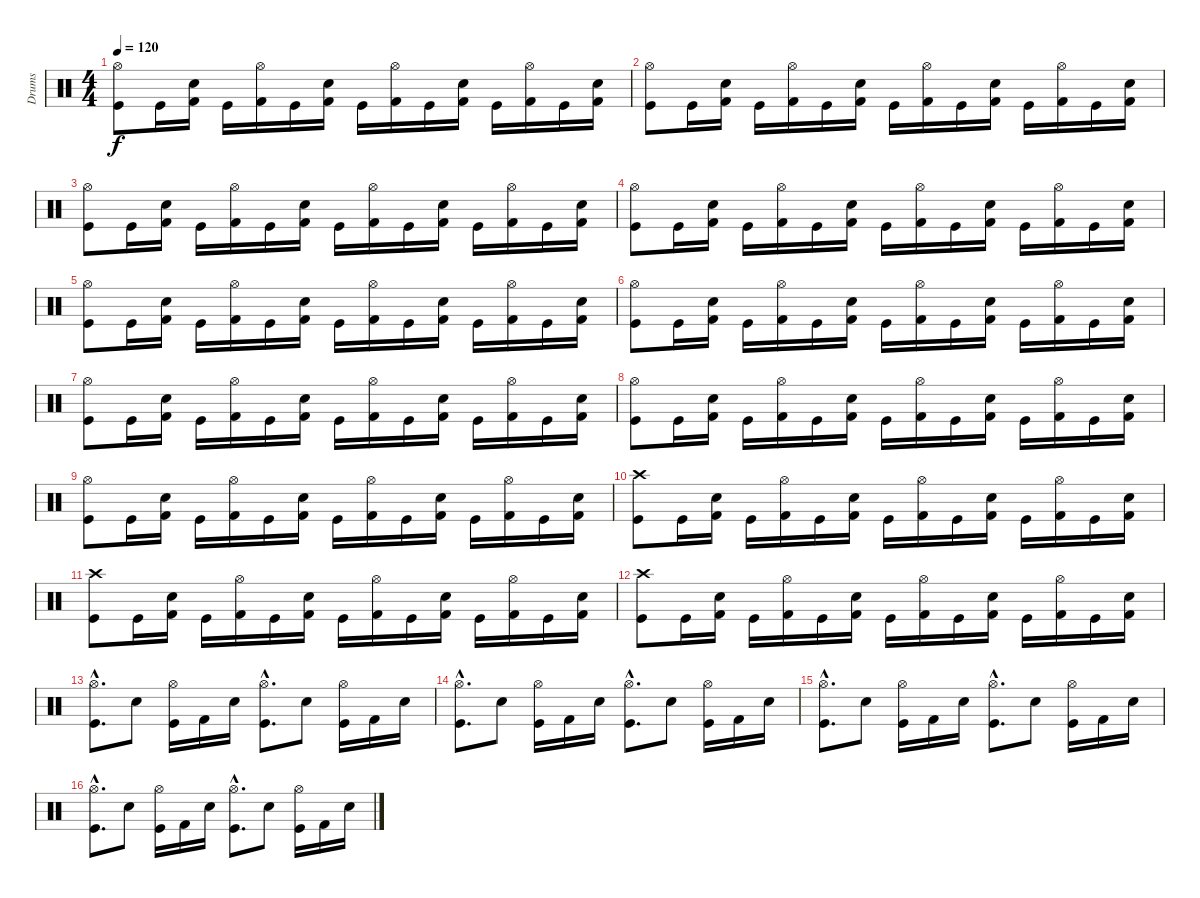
\track ("Drums" "Drums") {instrument percussion}
\staff {score}
\articulation defaults
\ts (4 4)
\tempo 120
\clef neutral
\ks c
("Hi-Hat (open)" "Kick (hit)").8{dy f} "Kick (hit)".16 ("Snare (hit) 2" "Kick (hit) 2").16 "Kick (hit)".16 ("Hi-Hat (open)" "Kick (hit) 2").16 "Kick (hit)".16 ("Snare (hit) 2" "Kick (hit) 2").16 "Kick (hit)".16 ("Hi-Hat (open)" "Kick (hit) 2").16 "Kick (hit)".16 ("Snare (hit) 2" "Kick (hit) 2").16 "Kick (hit)".16 ("Hi-Hat (open)" "Kick (hit) 2").16 "Kick (hit)".16 ("Snare (hit) 2" "Kick (hit) 2").16 |
("Hi-Hat (open)" "Kick (hit)").8 "Kick (hit)".16 ("Snare (hit) 2" "Kick (hit) 2").16 "Kick (hit)".16 ("Hi-Hat (open)" "Kick (hit) 2").16 "Kick (hit)".16 ("Snare (hit) 2" "Kick (hit) 2").16 "Kick (hit)".16 ("Hi-Hat (open)" "Kick (hit) 2").16 "Kick (hit)".16 ("Snare (hit) 2" "Kick (hit) 2").16 "Kick (hit)".16 ("Hi-Hat (open)" "Kick (hit) 2").16 "Kick (hit)".16 ("Snare (hit) 2" "Kick (hit) 2").16 |
("Hi-Hat (open)" "Kick (hit)").8 "Kick (hit)".16 ("Snare (hit) 2" "Kick (hit) 2").16 "Kick (hit)".16 ("Hi-Hat (open)" "Kick (hit) 2").16 "Kick (hit)".16 ("Snare (hit) 2" "Kick (hit) 2").16 "Kick (hit)".16 ("Hi-Hat (open)" "Kick (hit) 2").16 "Kick (hit)".16 ("Snare (hit) 2" "Kick (hit) 2").16 "Kick (hit)".16 ("Hi-Hat (open)" "Kick (hit) 2").16 "Kick (hit)".16 ("Snare (hit) 2" "Kick (hit) 2").16 |
("Hi-Hat (open)" "Kick (hit)").8 "Kick (hit)".16 ("Snare (hit) 2" "Kick (hit) 2").16 "Kick (hit)".16 ("Hi-Hat (open)" "Kick (hit) 2").16 "Kick (hit)".16 ("Snare (hit) 2" "Kick (hit) 2").16 "Kick (hit)".16 ("Hi-Hat (open)" "Kick (hit) 2").16 "Kick (hit)".16 ("Snare (hit) 2" "Kick (hit) 2").16 "Kick (hit)".16 ("Hi-Hat (open)" "Kick (hit) 2").16 "Kick (hit)".16 ("Snare (hit) 2" "Kick (hit) 2").16 |
("Hi-Hat (open)" "Kick (hit)").8 "Kick (hit)".16 ("Snare (hit) 2" "Kick (hit) 2").16 "Kick (hit)".16 ("Hi-Hat (open)" "Kick (hit) 2").16 "Kick (hit)".16 ("Snare (hit) 2" "Kick (hit) 2").16 "Kick (hit)".16 ("Hi-Hat (open)" "Kick (hit) 2").16 "Kick (hit)".16 ("Snare (hit) 2" "Kick (hit) 2").16 "Kick (hit)".16 ("Hi-Hat (open)" "Kick (hit) 2").16 "Kick (hit)".16 ("Snare (hit) 2" "Kick (hit) 2").16 |
("Hi-Hat (open)" "Kick (hit)").8 "Kick (hit)".16 ("Snare (hit) 2" "Kick (hit) 2").16 "Kick (hit)".16 ("Hi-Hat (open)" "Kick (hit) 2").16 "Kick (hit)".16 ("Snare (hit) 2" "Kick (hit) 2").16 "Kick (hit)".16 ("Hi-Hat (open)" "Kick (hit) 2").16 "Kick (hit)".16 ("Snare (hit) 2" "Kick (hit) 2").16 "Kick (hit)".16 ("Hi-Hat (open)" "Kick (hit) 2").16 "Kick (hit)".16 ("Snare (hit) 2" "Kick (hit) 2").16 |
("Hi-Hat (open)" "Kick (hit)").8 "Kick (hit)".16 ("Snare (hit) 2" "Kick (hit) 2").16 "Kick (hit)".16 ("Hi-Hat (open)" "Kick (hit) 2").16 "Kick (hit)".16 ("Snare (hit) 2" "Kick (hit) 2").16 "Kick (hit)".16 ("Hi-Hat (open)" "Kick (hit) 2").16 "Kick (hit)".16 ("Snare (hit) 2" "Kick (hit) 2").16 "Kick (hit)".16 ("Hi-Hat (open)" "Kick (hit) 2").16 "Kick (hit)".16 ("Snare (hit) 2" "Kick (hit) 2").16 |
("Hi-Hat (open)" "Kick (hit)").8 "Kick (hit)".16 ("Snare (hit) 2" "Kick (hit) 2").16 "Kick (hit)".16 ("Hi-Hat (open)" "Kick (hit) 2").16 "Kick (hit)".16 ("Snare (hit) 2" "Kick (hit) 2").16 "Kick (hit)".16 ("Hi-Hat (open)" "Kick (hit) 2").16 "Kick (hit)".16 ("Snare (hit) 2" "Kick (hit) 2").16 "Kick (hit)".16 ("Hi-Hat (open)" "Kick (hit) 2").16 "Kick (hit)".16 ("Snare (hit) 2" "Kick (hit) 2").16 |
("Hi-Hat (open)" "Kick (hit)").8 "Kick (hit)".16 ("Snare (hit) 2" "Kick (hit) 2").16 "Kick (hit)".16 ("Hi-Hat (open)" "Kick (hit) 2").16 "Kick (hit)".16 ("Snare (hit) 2" "Kick (hit) 2").16 "Kick (hit)".16 ("Hi-Hat (open)" "Kick (hit) 2").16 "Kick (hit)".16 ("Snare (hit) 2" "Kick (hit) 2").16 "Kick (hit)".16 ("Hi-Hat (open)" "Kick (hit) 2").16 "Kick (hit)".16 ("Snare (hit) 2" "Kick (hit) 2").16 |
("Crash high (hit)" "Kick (hit)").8 "Kick (hit)".16 ("Snare (hit) 2" "Kick (hit) 2").16 "Kick (hit)".16 ("Hi-Hat (open)" "Kick (hit) 2").16 "Kick (hit)".16 ("Snare (hit) 2" "Kick (hit) 2").16 "Kick (hit)".16 ("Hi-Hat (open)" "Kick (hit) 2").16 "Kick (hit)".16 ("Snare (hit) 2" "Kick (hit) 2").16 "Kick (hit)".16 ("Hi-Hat (open)" "Kick (hit) 2").16 "Kick (hit)".16 ("Snare (hit) 2" "Kick (hit) 2").16 |
("Crash high (hit)" "Kick (hit)").8 "Kick (hit)".16 ("Snare (hit) 2" "Kick (hit) 2").16 "Kick (hit)".16 ("Hi-Hat (open)" "Kick (hit) 2").16 "Kick (hit)".16 ("Snare (hit) 2" "Kick (hit) 2").16 "Kick (hit)".16 ("Hi-Hat (open)" "Kick (hit) 2").16 "Kick (hit)".16 ("Snare (hit) 2" "Kick (hit) 2").16 "Kick (hit)".16 ("Hi-Hat (open)" "Kick (hit) 2").16 "Kick (hit)".16 ("Snare (hit) 2" "Kick (hit) 2").16 |
("Crash high (hit)" "Kick (hit)").8 "Kick (hit)".16 ("Snare (hit) 2" "Kick (hit) 2").16 "Kick (hit)".16 ("Hi-Hat (open)" "Kick (hit) 2").16 "Kick (hit)".16 ("Snare (hit) 2" "Kick (hit) 2").16 "Kick (hit)".16 ("Hi-Hat (open)" "Kick (hit) 2").16 "Kick (hit)".16 ("Snare (hit) 2" "Kick (hit) 2").16 "Kick (hit)".16 ("Hi-Hat (open)" "Kick (hit) 2").16 "Kick (hit)".16 ("Snare (hit) 2" "Kick (hit) 2").16 |
("Hi-Hat (open)"{hac} "Kick (hit)"{hac}).8{d} "Snare (hit) 2".8 ("Hi-Hat (open)" "Kick (hit)").16 "Kick (hit) 2".16 "Snare (hit) 2".16 ("Hi-Hat (open)"{hac} "Kick (hit)"{hac}).8{d} "Snare (hit) 2".8 ("Hi-Hat (open)" "Kick (hit)").16 "Kick (hit) 2".16 "Snare (hit) 2".16 |
("Hi-Hat (open)"{hac} "Kick (hit)"{hac}).8{d} "Snare (hit) 2".8 ("Hi-Hat (open)" "Kick (hit)").16 "Kick (hit) 2".16 "Snare (hit) 2".16 ("Hi-Hat (open)"{hac} "Kick (hit)"{hac}).8{d} "Snare (hit) 2".8 ("Hi-Hat (open)" "Kick (hit)").16 "Kick (hit) 2".16 "Snare (hit) 2".16 |
("Hi-Hat (open)"{hac} "Kick (hit)"{hac}).8{d} "Snare (hit) 2".8 ("Hi-Hat (open)" "Kick (hit)").16 "Kick (hit) 2".16 "Snare (hit) 2".16 ("Hi-Hat (open)"{hac} "Kick (hit)"{hac}).8{d} "Snare (hit) 2".8 ("Hi-Hat (open)" "Kick (hit)").16 "Kick (hit) 2".16 "Snare (hit) 2".16 |
("Hi-Hat (open)"{hac} "Kick (hit)"{hac}).8{d} "Snare (hit) 2".8 ("Hi-Hat (open)" "Kick (hit)").16 "Kick (hit) 2".16 "Snare (hit) 2".16 ("Hi-Hat (open)"{hac} "Kick (hit)"{hac}).8{d} "Snare (hit) 2".8 ("Hi-Hat (open)" "Kick (hit)").16 "Kick (hit) 2".16 "Snare (hit) 2".16
